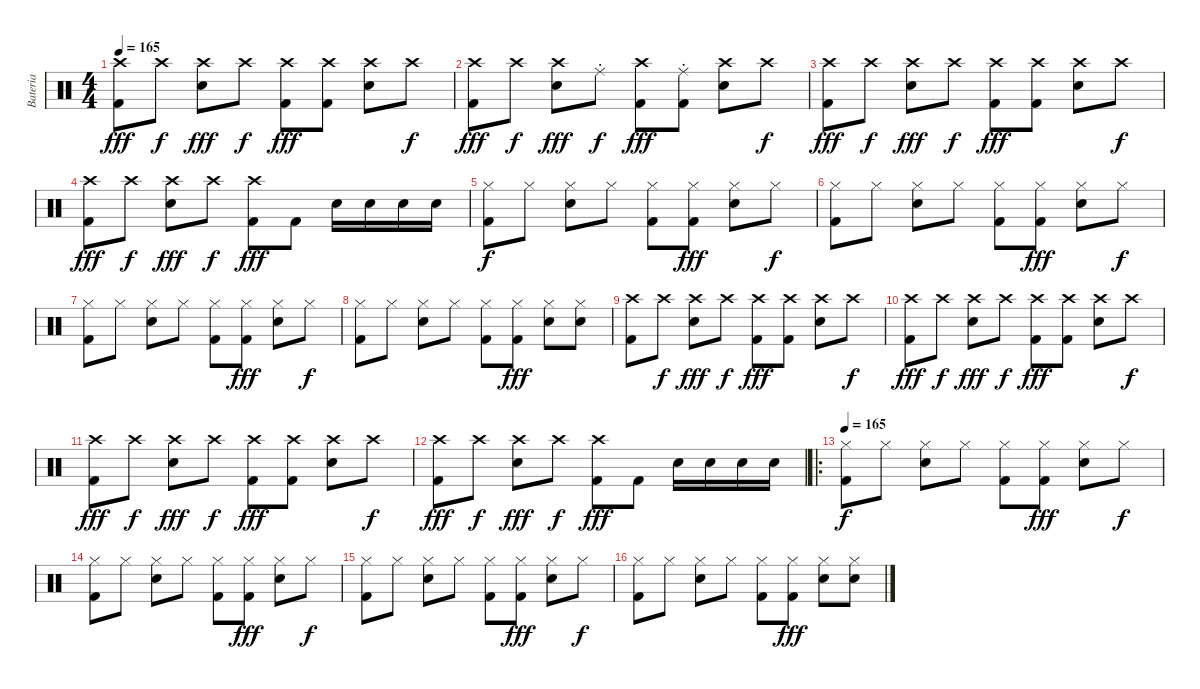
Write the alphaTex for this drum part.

\track ("Bateria" "Bateria") {instrument percussion}
\staff {score}
\articulation defaults
\ts (4 4)
\tempo 165
\clef neutral
\ks c
("Crash high (hit)" "Kick (hit) 2").8{dy fff} "Crash high (hit)".8{dy f} ("Crash high (hit)" "Electric Snare (hit)").8{dy fff} "Crash high (hit)".8{dy f} ("Crash high (hit)" "Kick (hit) 2").8{dy fff} ("Crash high (hit)" "Kick (hit) 2").8 ("Crash high (hit)" "Electric Snare (hit)").8 "Crash high (hit)".8{dy f} |
("Crash high (hit)" "Kick (hit) 2").8{dy fff} "Crash high (hit)".8{dy f} ("Crash high (hit)" "Electric Snare (hit)").8{dy fff} "Ride (choke)".8{dy f} ("Crash high (hit)" "Kick (hit) 2").8{dy fff} ("Ride (choke)" "Kick (hit) 2").8 ("Crash high (hit)" "Electric Snare (hit)").8 "Crash high (hit)".8{dy f} |
("Crash high (hit)" "Kick (hit) 2").8{dy fff} "Crash high (hit)".8{dy f} ("Crash high (hit)" "Electric Snare (hit)").8{dy fff} "Crash high (hit)".8{dy f} ("Crash high (hit)" "Kick (hit) 2").8{dy fff} ("Crash high (hit)" "Kick (hit) 2").8 ("Crash high (hit)" "Electric Snare (hit)").8 "Crash high (hit)".8{dy f} |
("Crash high (hit)" "Kick (hit) 2").8{dy fff} "Crash high (hit)".8{dy f} ("Crash high (hit)" "Electric Snare (hit)").8{dy fff} "Crash high (hit)".8{dy f} ("Crash high (hit)" "Kick (hit) 2").8{dy fff} "Kick (hit) 2".8 "Electric Snare (hit)".16 "Electric Snare (hit)".16 "Electric Snare (hit)".16 "Electric Snare (hit)".16 |
("Hi-Hat (closed)" "Kick (hit) 2").8{dy f} "Hi-Hat (closed)".8 ("Hi-Hat (closed)" "Electric Snare (hit)").8 "Hi-Hat (closed)".8 ("Hi-Hat (closed)" "Kick (hit) 2").8 ("Hi-Hat (closed)" "Kick (hit) 2").8{dy fff} ("Hi-Hat (closed)" "Electric Snare (hit)").8 "Hi-Hat (closed)".8{dy f} |
("Hi-Hat (closed)" "Kick (hit) 2").8 "Hi-Hat (closed)".8 ("Hi-Hat (closed)" "Electric Snare (hit)").8 "Hi-Hat (closed)".8 ("Hi-Hat (closed)" "Kick (hit) 2").8 ("Hi-Hat (closed)" "Kick (hit) 2").8{dy fff} ("Hi-Hat (closed)" "Electric Snare (hit)").8 "Hi-Hat (closed)".8{dy f} |
("Hi-Hat (closed)" "Kick (hit) 2").8 "Hi-Hat (closed)".8 ("Hi-Hat (closed)" "Electric Snare (hit)").8 "Hi-Hat (closed)".8 ("Hi-Hat (closed)" "Kick (hit) 2").8 ("Hi-Hat (closed)" "Kick (hit) 2").8{dy fff} ("Hi-Hat (closed)" "Electric Snare (hit)").8 "Hi-Hat (closed)".8{dy f} |
("Hi-Hat (closed)" "Kick (hit) 2").8 "Hi-Hat (closed)".8 ("Hi-Hat (closed)" "Electric Snare (hit)").8 "Hi-Hat (closed)".8 ("Hi-Hat (closed)" "Kick (hit) 2").8 ("Hi-Hat (closed)" "Kick (hit) 2").8{dy fff} ("Hi-Hat (closed)" "Electric Snare (hit)").8 ("Hi-Hat (closed)" "Electric Snare (hit)").8 |
("Crash high (hit)" "Kick (hit) 2").8 "Crash high (hit)".8{dy f} ("Crash high (hit)" "Electric Snare (hit)").8{dy fff} "Crash high (hit)".8{dy f} ("Crash high (hit)" "Kick (hit) 2").8{dy fff} ("Crash high (hit)" "Kick (hit) 2").8 ("Crash high (hit)" "Electric Snare (hit)").8 "Crash high (hit)".8{dy f} |
("Crash high (hit)" "Kick (hit) 2").8{dy fff} "Crash high (hit)".8{dy f} ("Crash high (hit)" "Electric Snare (hit)").8{dy fff} "Crash high (hit)".8{dy f} ("Crash high (hit)" "Kick (hit) 2").8{dy fff} ("Crash high (hit)" "Kick (hit) 2").8 ("Crash high (hit)" "Electric Snare (hit)").8 "Crash high (hit)".8{dy f} |
("Crash high (hit)" "Kick (hit) 2").8{dy fff} "Crash high (hit)".8{dy f} ("Crash high (hit)" "Electric Snare (hit)").8{dy fff} "Crash high (hit)".8{dy f} ("Crash high (hit)" "Kick (hit) 2").8{dy fff} ("Crash high (hit)" "Kick (hit) 2").8 ("Crash high (hit)" "Electric Snare (hit)").8 "Crash high (hit)".8{dy f} |
("Crash high (hit)" "Kick (hit) 2").8{dy fff} "Crash high (hit)".8{dy f} ("Crash high (hit)" "Electric Snare (hit)").8{dy fff} "Crash high (hit)".8{dy f} ("Crash high (hit)" "Kick (hit) 2").8{dy fff} "Kick (hit) 2".8 "Electric Snare (hit)".16 "Electric Snare (hit)".16 "Electric Snare (hit)".16 "Electric Snare (hit)".16 |
\ro
\tempo 165
("Hi-Hat (closed)" "Kick (hit) 2").8{dy f} "Hi-Hat (closed)".8 ("Hi-Hat (closed)" "Electric Snare (hit)").8 "Hi-Hat (closed)".8 ("Hi-Hat (closed)" "Kick (hit) 2").8 ("Hi-Hat (closed)" "Kick (hit) 2").8{dy fff} ("Hi-Hat (closed)" "Electric Snare (hit)").8 "Hi-Hat (closed)".8{dy f} |
("Hi-Hat (closed)" "Kick (hit) 2").8 "Hi-Hat (closed)".8 ("Hi-Hat (closed)" "Electric Snare (hit)").8 "Hi-Hat (closed)".8 ("Hi-Hat (closed)" "Kick (hit) 2").8 ("Hi-Hat (closed)" "Kick (hit) 2").8{dy fff} ("Hi-Hat (closed)" "Electric Snare (hit)").8 "Hi-Hat (closed)".8{dy f} |
("Hi-Hat (closed)" "Kick (hit) 2").8 "Hi-Hat (closed)".8 ("Hi-Hat (closed)" "Electric Snare (hit)").8 "Hi-Hat (closed)".8 ("Hi-Hat (closed)" "Kick (hit) 2").8 ("Hi-Hat (closed)" "Kick (hit) 2").8{dy fff} ("Hi-Hat (closed)" "Electric Snare (hit)").8 "Hi-Hat (closed)".8{dy f} |
("Hi-Hat (closed)" "Kick (hit) 2").8 "Hi-Hat (closed)".8 ("Hi-Hat (closed)" "Electric Snare (hit)").8 "Hi-Hat (closed)".8 ("Hi-Hat (closed)" "Kick (hit) 2").8 ("Hi-Hat (closed)" "Kick (hit) 2").8{dy fff} ("Hi-Hat (closed)" "Electric Snare (hit)").8 ("Hi-Hat (closed)" "Electric Snare (hit)").8
